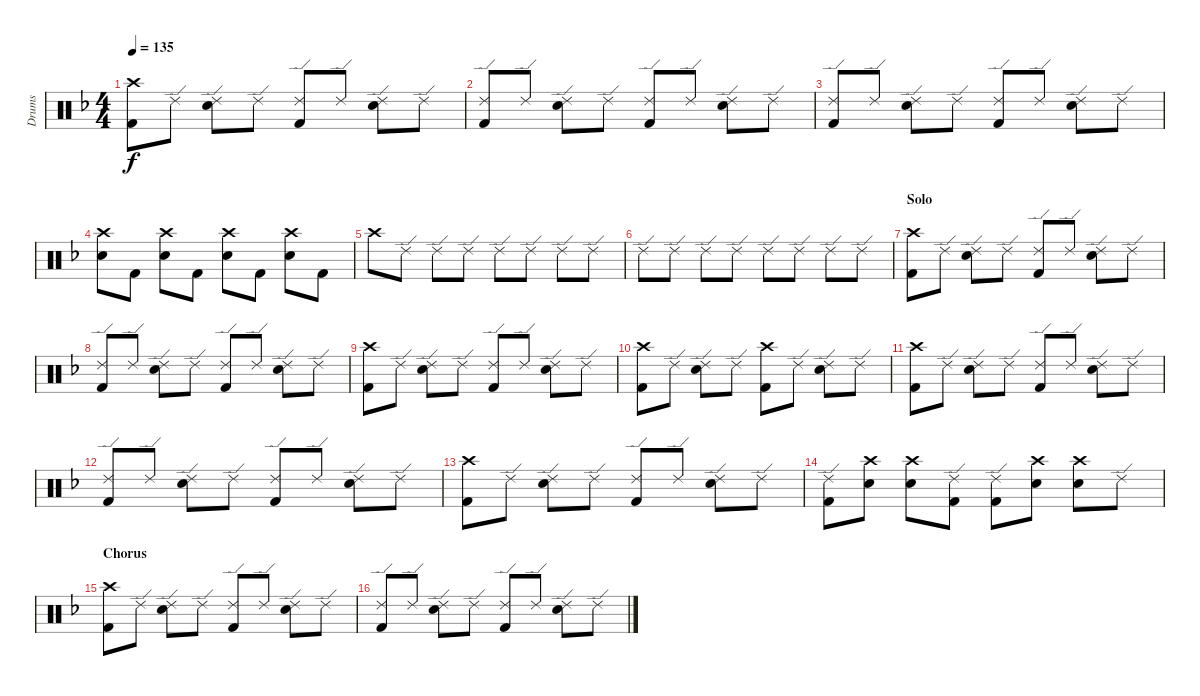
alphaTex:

\track ("Drums" "Drums") {instrument percussion}
\staff {score}
\articulation defaults
\ts (4 4)
\tempo 135
\clef neutral
\ks f
("Crash high (hit)" "Kick (hit) 2").8{dy f} "Ride (edge) 2".8 ("Ride (edge) 2" "Electric Snare (hit)").8 "Ride (edge) 2".8 ("Ride (edge) 2" "Kick (hit) 2").8 "Ride (edge) 2".8 ("Ride (edge) 2" "Electric Snare (hit)").8 "Ride (edge) 2".8 |
("Ride (edge) 2" "Kick (hit) 2").8 "Ride (edge) 2".8 ("Ride (edge) 2" "Electric Snare (hit)").8 "Ride (edge) 2".8 ("Ride (edge) 2" "Kick (hit) 2").8 "Ride (edge) 2".8 ("Ride (edge) 2" "Electric Snare (hit)").8 "Ride (edge) 2".8 |
("Ride (edge) 2" "Kick (hit) 2").8 "Ride (edge) 2".8 ("Ride (edge) 2" "Electric Snare (hit)").8 "Ride (edge) 2".8 ("Ride (edge) 2" "Kick (hit) 2").8 "Ride (edge) 2".8 ("Ride (edge) 2" "Electric Snare (hit)").8 "Ride (edge) 2".8 |
("Crash high (hit)" "Electric Snare (hit)").8 "Kick (hit) 2".8 ("Crash high (hit)" "Electric Snare (hit)").8 "Kick (hit) 2".8 ("Crash high (hit)" "Electric Snare (hit)").8 "Kick (hit) 2".8 ("Crash high (hit)" "Electric Snare (hit)").8 "Kick (hit) 2".8 |
"Crash high (hit)".8 "Ride (edge) 2".8 "Ride (edge) 2".8 "Ride (edge) 2".8 "Ride (edge) 2".8 "Ride (edge) 2".8 "Ride (edge) 2".8 "Ride (edge) 2".8 |
"Ride (edge) 2".8 "Ride (edge) 2".8 "Ride (edge) 2".8 "Ride (edge) 2".8 "Ride (edge) 2".8 "Ride (edge) 2".8 "Ride (edge) 2".8 "Ride (edge) 2".8 |
\section ("" "Solo")
("Crash high (hit)" "Kick (hit) 2").8 "Ride (edge) 2".8 ("Ride (edge) 2" "Electric Snare (hit)").8 "Ride (edge) 2".8 ("Ride (edge) 2" "Kick (hit) 2").8 "Ride (edge) 2".8 ("Ride (edge) 2" "Electric Snare (hit)").8 "Ride (edge) 2".8 |
("Ride (edge) 2" "Kick (hit) 2").8 "Ride (edge) 2".8 ("Ride (edge) 2" "Electric Snare (hit)").8 "Ride (edge) 2".8 ("Ride (edge) 2" "Kick (hit) 2").8 "Ride (edge) 2".8 ("Ride (edge) 2" "Electric Snare (hit)").8 "Ride (edge) 2".8 |
("Crash high (hit)" "Kick (hit) 2").8 "Ride (edge) 2".8 ("Ride (edge) 2" "Electric Snare (hit)").8 "Ride (edge) 2".8 ("Ride (edge) 2" "Kick (hit) 2").8 "Ride (edge) 2".8 ("Ride (edge) 2" "Electric Snare (hit)").8 "Ride (edge) 2".8 |
("Crash high (hit)" "Kick (hit) 2").8 "Ride (edge) 2".8 ("Ride (edge) 2" "Electric Snare (hit)").8 "Ride (edge) 2".8 ("Crash high (hit)" "Kick (hit) 2").8 "Ride (edge) 2".8 ("Ride (edge) 2" "Electric Snare (hit)").8 "Ride (edge) 2".8 |
("Crash high (hit)" "Kick (hit) 2").8 "Ride (edge) 2".8 ("Ride (edge) 2" "Electric Snare (hit)").8 "Ride (edge) 2".8 ("Ride (edge) 2" "Kick (hit) 2").8 "Ride (edge) 2".8 ("Ride (edge) 2" "Electric Snare (hit)").8 "Ride (edge) 2".8 |
("Ride (edge) 2" "Kick (hit) 2").8 "Ride (edge) 2".8 ("Ride (edge) 2" "Electric Snare (hit)").8 "Ride (edge) 2".8 ("Ride (edge) 2" "Kick (hit) 2").8 "Ride (edge) 2".8 ("Ride (edge) 2" "Electric Snare (hit)").8 "Ride (edge) 2".8 |
("Crash high (hit)" "Kick (hit) 2").8 "Ride (edge) 2".8 ("Ride (edge) 2" "Electric Snare (hit)").8 "Ride (edge) 2".8 ("Ride (edge) 2" "Kick (hit) 2").8 "Ride (edge) 2".8 ("Ride (edge) 2" "Electric Snare (hit)").8 "Ride (edge) 2".8 |
("Ride (edge) 2" "Kick (hit) 2").8 ("Crash high (hit)" "Electric Snare (hit)").8 ("Crash high (hit)" "Electric Snare (hit)").8 ("Ride (edge) 2" "Kick (hit) 2").8 ("Ride (edge) 2" "Kick (hit) 2").8 ("Crash high (hit)" "Electric Snare (hit)").8 ("Crash high (hit)" "Electric Snare (hit)").8 "Ride (edge) 2".8 |
\section ("" "Chorus")
("Crash high (hit)" "Kick (hit) 2").8 "Ride (edge) 2".8 ("Ride (edge) 2" "Electric Snare (hit)").8 "Ride (edge) 2".8 ("Ride (edge) 2" "Kick (hit) 2").8 "Ride (edge) 2".8 ("Ride (edge) 2" "Electric Snare (hit)").8 "Ride (edge) 2".8 |
("Ride (edge) 2" "Kick (hit) 2").8 "Ride (edge) 2".8 ("Ride (edge) 2" "Electric Snare (hit)").8 "Ride (edge) 2".8 ("Ride (edge) 2" "Kick (hit) 2").8 "Ride (edge) 2".8 ("Ride (edge) 2" "Electric Snare (hit)").8 "Ride (edge) 2".8
